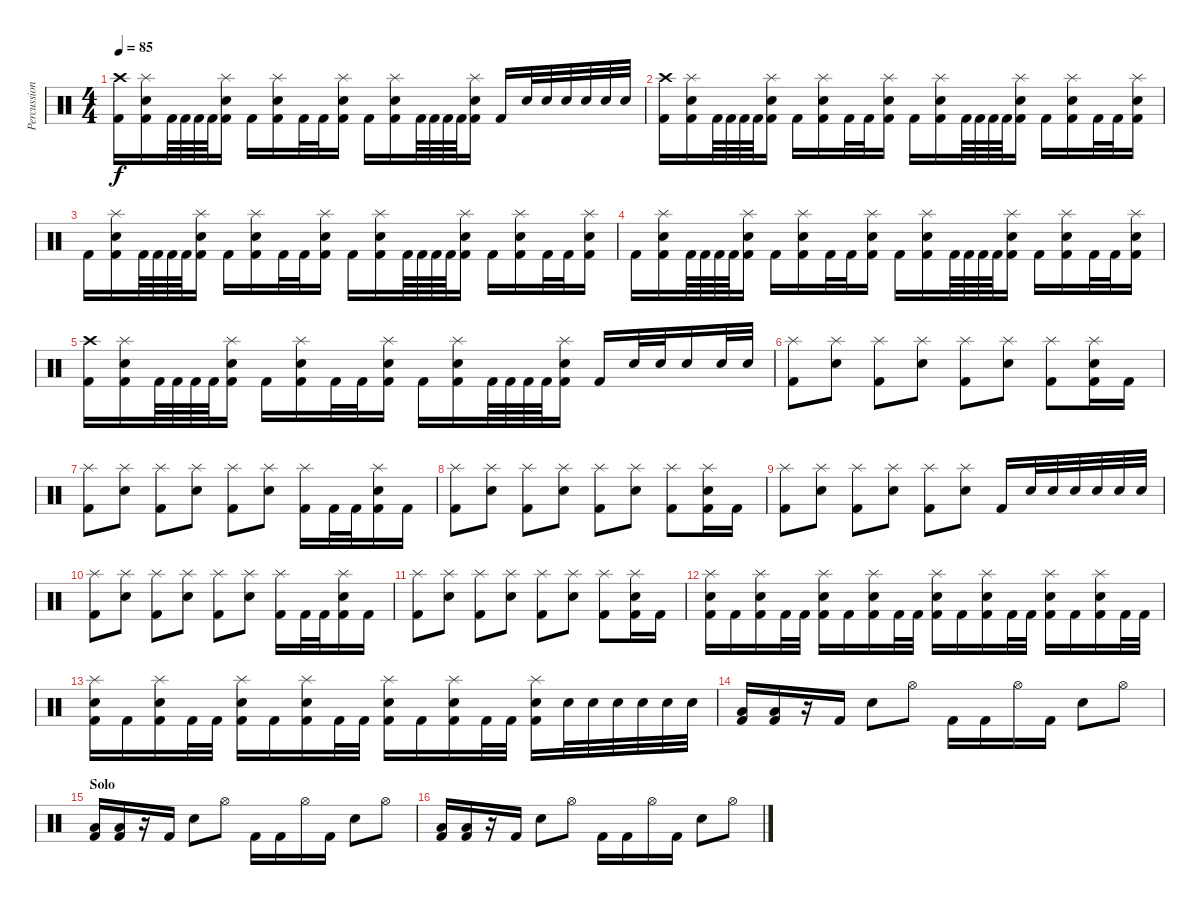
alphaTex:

\track ("Percussion" "Percussion") {instrument percussion}
\staff {score}
\articulation defaults
\ts (4 4)
\tempo 85
\clef neutral
\ks c
("Crash high (hit)" "Kick (hit) 2").16{dy f} ("Snare (hit) 2" "Splash (hit)" "Kick (hit) 2").16 "Kick (hit) 2".64 "Kick (hit) 2".64 "Kick (hit) 2".64 "Kick (hit) 2".64 ("Snare (hit) 2" "Splash (hit)" "Kick (hit) 2").16 "Kick (hit) 2".16 ("Snare (hit) 2" "Splash (hit)" "Kick (hit) 2").16 "Kick (hit) 2".32 "Kick (hit) 2".32 ("Snare (hit) 2" "Splash (hit)" "Kick (hit) 2").16 "Kick (hit) 2".16 ("Snare (hit) 2" "Splash (hit)" "Kick (hit) 2").16 "Kick (hit) 2".64 "Kick (hit) 2".64 "Kick (hit) 2".64 "Kick (hit) 2".64 ("Snare (hit) 2" "Splash (hit)" "Kick (hit) 2").16 "Kick (hit) 2".16 "Snare (hit) 2".32 "Snare (hit) 2".32 "Snare (hit) 2".32 "Snare (hit) 2".32 "Snare (hit) 2".32 "Snare (hit) 2".32 |
("Crash high (hit)" "Kick (hit) 2").16 ("Snare (hit) 2" "Splash (hit)" "Kick (hit) 2").16 "Kick (hit) 2".64 "Kick (hit) 2".64 "Kick (hit) 2".64 "Kick (hit) 2".64 ("Snare (hit) 2" "Splash (hit)" "Kick (hit) 2").16 "Kick (hit) 2".16 ("Snare (hit) 2" "Splash (hit)" "Kick (hit) 2").16 "Kick (hit) 2".32 "Kick (hit) 2".32 ("Snare (hit) 2" "Splash (hit)" "Kick (hit) 2").16 "Kick (hit) 2".16 ("Snare (hit) 2" "Splash (hit)" "Kick (hit) 2").16 "Kick (hit) 2".64 "Kick (hit) 2".64 "Kick (hit) 2".64 "Kick (hit) 2".64 ("Snare (hit) 2" "Splash (hit)" "Kick (hit) 2").16 "Kick (hit) 2".16 ("Snare (hit) 2" "Splash (hit)" "Kick (hit) 2").16 "Kick (hit) 2".32 "Kick (hit) 2".32 ("Snare (hit) 2" "Splash (hit)" "Kick (hit) 2").16 |
"Kick (hit) 2".16 ("Snare (hit) 2" "Splash (hit)" "Kick (hit) 2").16 "Kick (hit) 2".64 "Kick (hit) 2".64 "Kick (hit) 2".64 "Kick (hit) 2".64 ("Snare (hit) 2" "Splash (hit)" "Kick (hit) 2").16 "Kick (hit) 2".16 ("Snare (hit) 2" "Splash (hit)" "Kick (hit) 2").16 "Kick (hit) 2".32 "Kick (hit) 2".32 ("Snare (hit) 2" "Splash (hit)" "Kick (hit) 2").16 "Kick (hit) 2".16 ("Snare (hit) 2" "Splash (hit)" "Kick (hit) 2").16 "Kick (hit) 2".64 "Kick (hit) 2".64 "Kick (hit) 2".64 "Kick (hit) 2".64 ("Snare (hit) 2" "Splash (hit)" "Kick (hit) 2").16 "Kick (hit) 2".16 ("Snare (hit) 2" "Splash (hit)" "Kick (hit) 2").16 "Kick (hit) 2".32 "Kick (hit) 2".32 ("Snare (hit) 2" "Splash (hit)" "Kick (hit) 2").16 |
"Kick (hit) 2".16 ("Snare (hit) 2" "Splash (hit)" "Kick (hit) 2").16 "Kick (hit) 2".64 "Kick (hit) 2".64 "Kick (hit) 2".64 "Kick (hit) 2".64 ("Snare (hit) 2" "Splash (hit)" "Kick (hit) 2").16 "Kick (hit) 2".16 ("Snare (hit) 2" "Splash (hit)" "Kick (hit) 2").16 "Kick (hit) 2".32 "Kick (hit) 2".32 ("Snare (hit) 2" "Splash (hit)" "Kick (hit) 2").16 "Kick (hit) 2".16 ("Snare (hit) 2" "Splash (hit)" "Kick (hit) 2").16 "Kick (hit) 2".64 "Kick (hit) 2".64 "Kick (hit) 2".64 "Kick (hit) 2".64 ("Snare (hit) 2" "Splash (hit)" "Kick (hit) 2").16 "Kick (hit) 2".16 ("Snare (hit) 2" "Splash (hit)" "Kick (hit) 2").16 "Kick (hit) 2".32 "Kick (hit) 2".32 ("Snare (hit) 2" "Splash (hit)" "Kick (hit) 2").16 |
("Crash high (hit)" "Kick (hit) 2").16 ("Snare (hit) 2" "Splash (hit)" "Kick (hit) 2").16 "Kick (hit) 2".64 "Kick (hit) 2".64 "Kick (hit) 2".64 "Kick (hit) 2".64 ("Snare (hit) 2" "Splash (hit)" "Kick (hit) 2").16 "Kick (hit) 2".16 ("Snare (hit) 2" "Splash (hit)" "Kick (hit) 2").16 "Kick (hit) 2".32 "Kick (hit) 2".32 ("Snare (hit) 2" "Splash (hit)" "Kick (hit) 2").16 "Kick (hit) 2".16 ("Snare (hit) 2" "Splash (hit)" "Kick (hit) 2").16 "Kick (hit) 2".64 "Kick (hit) 2".64 "Kick (hit) 2".64 "Kick (hit) 2".64 ("Snare (hit) 2" "Splash (hit)" "Kick (hit) 2").16 "Kick (hit) 2".16 "Snare (hit) 2".32 "Snare (hit) 2".32 "Snare (hit) 2".16 "Snare (hit) 2".32 "Snare (hit) 2".32 |
("Splash (hit)" "Kick (hit) 2").8 ("Splash (hit)" "Snare (hit) 2").8 ("Splash (hit)" "Kick (hit) 2").8 ("Splash (hit)" "Snare (hit) 2").8 ("Splash (hit)" "Kick (hit) 2").8 ("Splash (hit)" "Snare (hit) 2").8 ("Splash (hit)" "Kick (hit) 2").8 ("Splash (hit)" "Snare (hit) 2" "Kick (hit) 2").16 "Kick (hit) 2".16 |
("Splash (hit)" "Kick (hit) 2").8 ("Splash (hit)" "Snare (hit) 2").8 ("Splash (hit)" "Kick (hit) 2").8 ("Splash (hit)" "Snare (hit) 2").8 ("Splash (hit)" "Kick (hit) 2").8 ("Splash (hit)" "Snare (hit) 2").8 ("Splash (hit)" "Kick (hit) 2").16 "Kick (hit) 2".32 "Kick (hit) 2".32 ("Splash (hit)" "Snare (hit) 2" "Kick (hit) 2").16 "Kick (hit) 2".16 |
("Splash (hit)" "Kick (hit) 2").8 ("Splash (hit)" "Snare (hit) 2").8 ("Splash (hit)" "Kick (hit) 2").8 ("Splash (hit)" "Snare (hit) 2").8 ("Splash (hit)" "Kick (hit) 2").8 ("Splash (hit)" "Snare (hit) 2").8 ("Splash (hit)" "Kick (hit) 2").8 ("Splash (hit)" "Snare (hit) 2" "Kick (hit) 2").16 "Kick (hit) 2".16 |
("Splash (hit)" "Kick (hit) 2").8 ("Splash (hit)" "Snare (hit) 2").8 ("Splash (hit)" "Kick (hit) 2").8 ("Splash (hit)" "Snare (hit) 2").8 ("Splash (hit)" "Kick (hit) 2").8 ("Splash (hit)" "Snare (hit) 2").8 "Kick (hit) 2".16 "Snare (hit) 2".32 "Snare (hit) 2".32 "Snare (hit) 2".32 "Snare (hit) 2".32 "Snare (hit) 2".32 "Snare (hit) 2".32 |
("Splash (hit)" "Kick (hit) 2").8 ("Splash (hit)" "Snare (hit) 2").8 ("Splash (hit)" "Kick (hit) 2").8 ("Splash (hit)" "Snare (hit) 2").8 ("Splash (hit)" "Kick (hit) 2").8 ("Splash (hit)" "Snare (hit) 2").8 ("Splash (hit)" "Kick (hit) 2").16 "Kick (hit) 2".32 "Kick (hit) 2".32 ("Splash (hit)" "Snare (hit) 2" "Kick (hit) 2").16 "Kick (hit) 2".16 |
("Splash (hit)" "Kick (hit) 2").8 ("Splash (hit)" "Snare (hit) 2").8 ("Splash (hit)" "Kick (hit) 2").8 ("Splash (hit)" "Snare (hit) 2").8 ("Splash (hit)" "Kick (hit) 2").8 ("Splash (hit)" "Snare (hit) 2").8 ("Splash (hit)" "Kick (hit) 2").8 ("Splash (hit)" "Snare (hit) 2" "Kick (hit) 2").16 "Kick (hit) 2".16 |
("Splash (hit)" "Snare (hit) 2" "Kick (hit) 2").16 "Kick (hit) 2".16 ("Splash (hit)" "Snare (hit) 2" "Kick (hit) 2").16 "Kick (hit) 2".32 "Kick (hit) 2".32 ("Splash (hit)" "Snare (hit) 2" "Kick (hit) 2").16 "Kick (hit) 2".16 ("Splash (hit)" "Snare (hit) 2" "Kick (hit) 2").16 "Kick (hit) 2".32 "Kick (hit) 2".32 ("Splash (hit)" "Snare (hit) 2" "Kick (hit) 2").16 "Kick (hit) 2".16 ("Splash (hit)" "Snare (hit) 2" "Kick (hit) 2").16 "Kick (hit) 2".32 "Kick (hit) 2".32 ("Splash (hit)" "Snare (hit) 2" "Kick (hit) 2").16 "Kick (hit) 2".16 ("Splash (hit)" "Snare (hit) 2" "Kick (hit) 2").16 "Kick (hit) 2".32 "Kick (hit) 2".32 |
("Splash (hit)" "Snare (hit) 2" "Kick (hit) 2").16 "Kick (hit) 2".16 ("Splash (hit)" "Snare (hit) 2" "Kick (hit) 2").16 "Kick (hit) 2".32 "Kick (hit) 2".32 ("Splash (hit)" "Snare (hit) 2" "Kick (hit) 2").16 "Kick (hit) 2".16 ("Splash (hit)" "Snare (hit) 2" "Kick (hit) 2").16 "Kick (hit) 2".32 "Kick (hit) 2".32 ("Splash (hit)" "Snare (hit) 2" "Kick (hit) 2").16 "Kick (hit) 2".16 ("Splash (hit)" "Snare (hit) 2" "Kick (hit) 2").16 "Kick (hit) 2".32 "Kick (hit) 2".32 ("Splash (hit)" "Snare (hit) 2" "Kick (hit) 2").16 "Snare (hit) 2".32 "Snare (hit) 2".32 "Snare (hit) 2".32 "Snare (hit) 2".32 "Snare (hit) 2".32 "Snare (hit) 2".32 |
("Low Floor Tom (hit)" "Kick (hit) 2").16 ("Low Floor Tom (hit)" "Kick (hit) 2").16 r.16 "Kick (hit) 2".16 "Snare (hit) 2".8 "Hi-Hat (open)".8 "Kick (hit) 2".16 "Kick (hit) 2".16 "Hi-Hat (open)".16 "Kick (hit) 2".16 "Snare (hit) 2".8 "Hi-Hat (open)".8 |
\section ("" "Solo")
("Low Floor Tom (hit)" "Kick (hit) 2").16 ("Low Floor Tom (hit)" "Kick (hit) 2").16 r.16 "Kick (hit) 2".16 "Snare (hit) 2".8 "Hi-Hat (open)".8 "Kick (hit) 2".16 "Kick (hit) 2".16 "Hi-Hat (open)".16 "Kick (hit) 2".16 "Snare (hit) 2".8 "Hi-Hat (open)".8 |
("Low Floor Tom (hit)" "Kick (hit) 2").16 ("Low Floor Tom (hit)" "Kick (hit) 2").16 r.16 "Kick (hit) 2".16 "Snare (hit) 2".8 "Hi-Hat (open)".8 "Kick (hit) 2".16 "Kick (hit) 2".16 "Hi-Hat (open)".16 "Kick (hit) 2".16 "Snare (hit) 2".8 "Hi-Hat (open)".8
